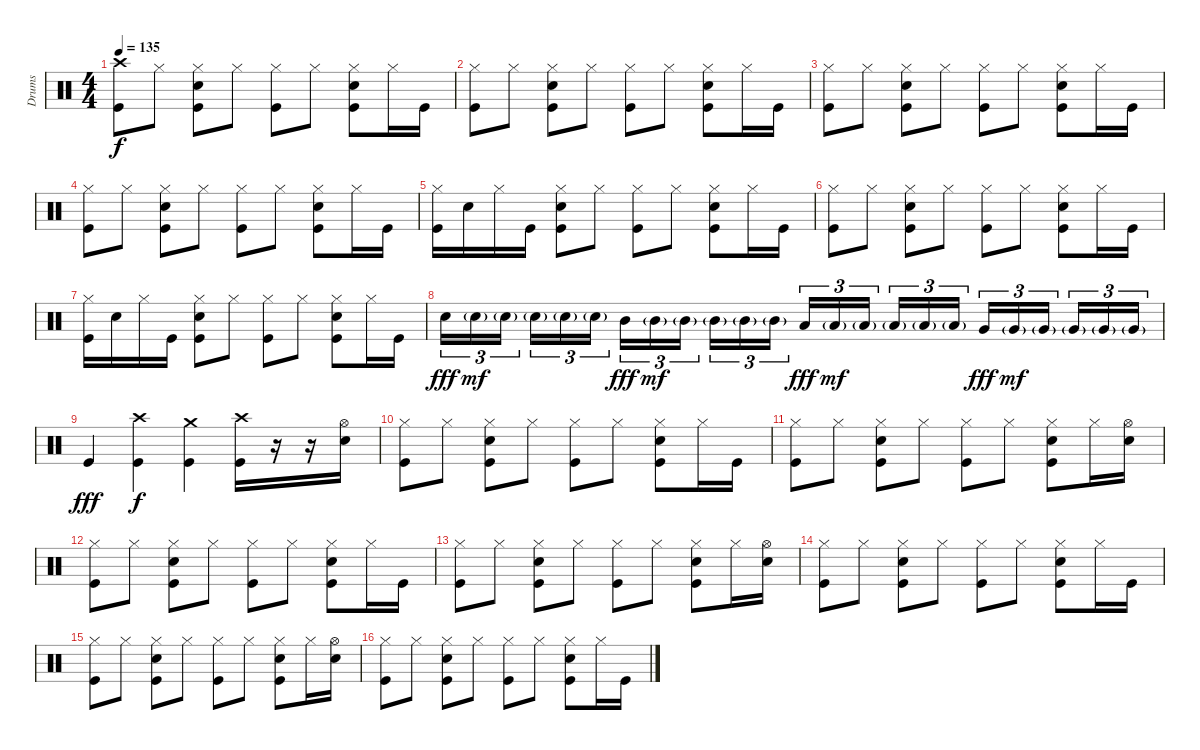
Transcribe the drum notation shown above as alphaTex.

\track ("Drums" "Drums") {instrument percussion}
\staff {score}
\articulation defaults
\ts (4 4)
\tempo 135
\clef neutral
\ks c
("Kick (hit)" "Crash high (hit)").8{dy f} "Hi-Hat (closed)".8 ("Kick (hit)" "Electric Snare (hit)" "Hi-Hat (closed)").8 "Hi-Hat (closed)".8 ("Kick (hit)" "Hi-Hat (closed)").8 "Hi-Hat (closed)".8 ("Kick (hit)" "Electric Snare (hit)" "Hi-Hat (closed)").8 "Hi-Hat (closed)".16 "Kick (hit)".16 |
("Kick (hit)" "Hi-Hat (closed)").8 "Hi-Hat (closed)".8 ("Kick (hit)" "Electric Snare (hit)" "Hi-Hat (closed)").8 "Hi-Hat (closed)".8 ("Kick (hit)" "Hi-Hat (closed)").8 "Hi-Hat (closed)".8 ("Kick (hit)" "Electric Snare (hit)" "Hi-Hat (closed)").8 "Hi-Hat (closed)".16 "Kick (hit)".16 |
("Kick (hit)" "Hi-Hat (closed)").8 "Hi-Hat (closed)".8 ("Kick (hit)" "Electric Snare (hit)" "Hi-Hat (closed)").8 "Hi-Hat (closed)".8 ("Kick (hit)" "Hi-Hat (closed)").8 "Hi-Hat (closed)".8 ("Kick (hit)" "Electric Snare (hit)" "Hi-Hat (closed)").8 "Hi-Hat (closed)".16 "Kick (hit)".16 |
("Kick (hit)" "Hi-Hat (closed)").8 "Hi-Hat (closed)".8 ("Kick (hit)" "Electric Snare (hit)" "Hi-Hat (closed)").8 "Hi-Hat (closed)".8 ("Kick (hit)" "Hi-Hat (closed)").8 "Hi-Hat (closed)".8 ("Kick (hit)" "Electric Snare (hit)" "Hi-Hat (closed)").8 "Hi-Hat (closed)".16 "Kick (hit)".16 |
("Kick (hit)" "Hi-Hat (closed)").16 "Electric Snare (hit)".16 "Hi-Hat (closed)".16 "Kick (hit)".16 ("Kick (hit)" "Electric Snare (hit)" "Hi-Hat (closed)").8 "Hi-Hat (closed)".8 ("Kick (hit)" "Hi-Hat (closed)").8 "Hi-Hat (closed)".8 ("Kick (hit)" "Electric Snare (hit)" "Hi-Hat (closed)").8 "Hi-Hat (closed)".16 "Kick (hit)".16 |
("Kick (hit)" "Hi-Hat (closed)").8 "Hi-Hat (closed)".8 ("Kick (hit)" "Electric Snare (hit)" "Hi-Hat (closed)").8 "Hi-Hat (closed)".8 ("Kick (hit)" "Hi-Hat (closed)").8 "Hi-Hat (closed)".8 ("Kick (hit)" "Electric Snare (hit)" "Hi-Hat (closed)").8 "Hi-Hat (closed)".16 "Kick (hit)".16 |
("Kick (hit)" "Hi-Hat (closed)").16 "Electric Snare (hit)".16 "Hi-Hat (closed)".16 "Kick (hit)".16 ("Kick (hit)" "Electric Snare (hit)" "Hi-Hat (closed)").8 "Hi-Hat (closed)".8 ("Kick (hit)" "Hi-Hat (closed)").8 "Hi-Hat (closed)".8 ("Kick (hit)" "Electric Snare (hit)" "Hi-Hat (closed)").8 "Hi-Hat (closed)".16 "Kick (hit)".16 |
"Electric Snare (hit)".16{tu (3 2) dy fff} "Electric Snare (hit)"{g}.16{tu (3 2) dy mf} "Electric Snare (hit)"{g}.16{tu (3 2) beam splitsecondary} "Electric Snare (hit)"{g}.16{tu (3 2)} "Electric Snare (hit)"{g}.16{tu (3 2)} "Electric Snare (hit)"{g}.16{tu (3 2)} "Mid Tom (hit)".16{tu (3 2) dy fff} "Mid Tom (hit)"{g}.16{tu (3 2) dy mf} "Mid Tom (hit)"{g}.16{tu (3 2) beam splitsecondary} "Mid Tom (hit)"{g}.16{tu (3 2)} "Mid Tom (hit)"{g}.16{tu (3 2)} "Mid Tom (hit)"{g}.16{tu (3 2)} "Low Tom (hit)".16{tu (3 2) dy fff} "Low Tom (hit)"{g}.16{tu (3 2) dy mf} "Low Tom (hit)"{g}.16{tu (3 2) beam splitsecondary} "Low Tom (hit)"{g}.16{tu (3 2)} "Low Tom (hit)"{g}.16{tu (3 2)} "Low Tom (hit)"{g}.16{tu (3 2)} "Very Low Tom (hit)".16{tu (3 2) dy fff} "Very Low Tom (hit)"{g}.16{tu (3 2) dy mf} "Very Low Tom (hit)"{g}.16{tu (3 2) beam splitsecondary} "Very Low Tom (hit)"{g}.16{tu (3 2)} "Very Low Tom (hit)"{g}.16{tu (3 2)} "Very Low Tom (hit)"{g}.16{tu (3 2)} |
"Kick (hit)".4{dy fff} ("Kick (hit)" "Crash high (hit)").4{dy f} ("Kick (hit)" "Crash medium (hit)").4 ("Kick (hit)" "Crash high (hit)").16 r.16 r.16 ("Electric Snare (hit)" "Hi-Hat (open)").16 |
("Kick (hit)" "Hi-Hat (closed)").8 "Hi-Hat (closed)".8 ("Kick (hit)" "Electric Snare (hit)" "Hi-Hat (closed)").8 "Hi-Hat (closed)".8 ("Kick (hit)" "Hi-Hat (closed)").8 "Hi-Hat (closed)".8 ("Kick (hit)" "Electric Snare (hit)" "Hi-Hat (closed)").8 "Hi-Hat (closed)".16 "Kick (hit)".16 |
("Kick (hit)" "Hi-Hat (closed)").8 "Hi-Hat (closed)".8 ("Kick (hit)" "Electric Snare (hit)" "Hi-Hat (closed)").8 "Hi-Hat (closed)".8 ("Kick (hit)" "Hi-Hat (closed)").8 "Hi-Hat (closed)".8 ("Kick (hit)" "Electric Snare (hit)" "Hi-Hat (closed)").8 "Hi-Hat (closed)".16 ("Electric Snare (hit)" "Hi-Hat (open)").16 |
("Kick (hit)" "Hi-Hat (closed)").8 "Hi-Hat (closed)".8 ("Kick (hit)" "Electric Snare (hit)" "Hi-Hat (closed)").8 "Hi-Hat (closed)".8 ("Kick (hit)" "Hi-Hat (closed)").8 "Hi-Hat (closed)".8 ("Kick (hit)" "Electric Snare (hit)" "Hi-Hat (closed)").8 "Hi-Hat (closed)".16 "Kick (hit)".16 |
("Kick (hit)" "Hi-Hat (closed)").8 "Hi-Hat (closed)".8 ("Kick (hit)" "Electric Snare (hit)" "Hi-Hat (closed)").8 "Hi-Hat (closed)".8 ("Kick (hit)" "Hi-Hat (closed)").8 "Hi-Hat (closed)".8 ("Kick (hit)" "Electric Snare (hit)" "Hi-Hat (closed)").8 "Hi-Hat (closed)".16 ("Electric Snare (hit)" "Hi-Hat (open)").16 |
("Kick (hit)" "Hi-Hat (closed)").8 "Hi-Hat (closed)".8 ("Kick (hit)" "Electric Snare (hit)" "Hi-Hat (closed)").8 "Hi-Hat (closed)".8 ("Kick (hit)" "Hi-Hat (closed)").8 "Hi-Hat (closed)".8 ("Kick (hit)" "Electric Snare (hit)" "Hi-Hat (closed)").8 "Hi-Hat (closed)".16 "Kick (hit)".16 |
("Kick (hit)" "Hi-Hat (closed)").8 "Hi-Hat (closed)".8 ("Kick (hit)" "Electric Snare (hit)" "Hi-Hat (closed)").8 "Hi-Hat (closed)".8 ("Kick (hit)" "Hi-Hat (closed)").8 "Hi-Hat (closed)".8 ("Kick (hit)" "Electric Snare (hit)" "Hi-Hat (closed)").8 "Hi-Hat (closed)".16 ("Electric Snare (hit)" "Hi-Hat (open)").16 |
("Kick (hit)" "Hi-Hat (closed)").8 "Hi-Hat (closed)".8 ("Kick (hit)" "Electric Snare (hit)" "Hi-Hat (closed)").8 "Hi-Hat (closed)".8 ("Kick (hit)" "Hi-Hat (closed)").8 "Hi-Hat (closed)".8 ("Kick (hit)" "Electric Snare (hit)" "Hi-Hat (closed)").8 "Hi-Hat (closed)".16 "Kick (hit)".16
